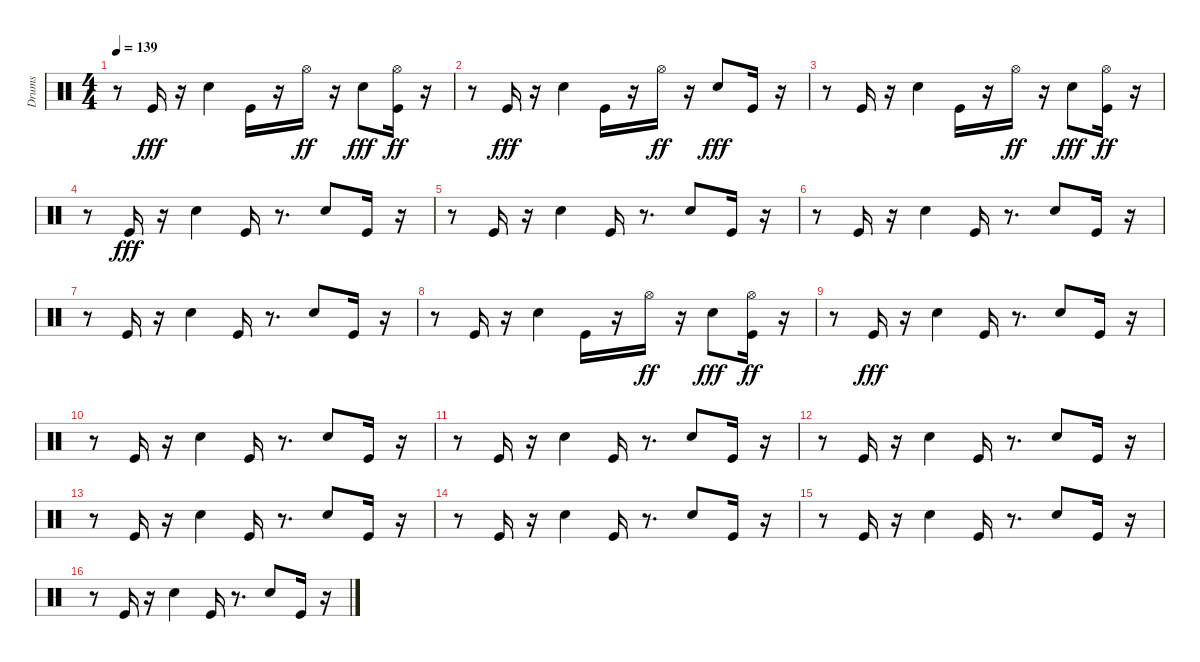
\track ("Drums" "Drums") {instrument percussion}
\staff {score}
\articulation defaults
\ts (4 4)
\tempo 139
\clef neutral
\ks c
r.8{dy fff} "Kick (hit)".16 r.16 "Snare (hit) 2".4 "Kick (hit)".16 r.16 "Hi-Hat (open)".16{dy ff} r.16 "Snare (hit) 2".8{dy fff} ("Kick (hit)" "Hi-Hat (open)").16{dy ff} r.16 |
r.8 "Kick (hit)".16{dy fff} r.16 "Snare (hit) 2".4 "Kick (hit)".16 r.16 "Hi-Hat (open)".16{dy ff} r.16 "Snare (hit) 2".8{dy fff} "Kick (hit)".16 r.16 |
r.8 "Kick (hit)".16 r.16 "Snare (hit) 2".4 "Kick (hit)".16 r.16 "Hi-Hat (open)".16{dy ff} r.16 "Snare (hit) 2".8{dy fff} ("Kick (hit)" "Hi-Hat (open)").16{dy ff} r.16 |
r.8 "Kick (hit)".16{dy fff} r.16 "Snare (hit) 2".4 "Kick (hit)".16 r.8{d} "Snare (hit) 2".8 "Kick (hit)".16 r.16 |
r.8 "Kick (hit)".16 r.16 "Snare (hit) 2".4 "Kick (hit)".16 r.8{d} "Snare (hit) 2".8 "Kick (hit)".16 r.16 |
r.8 "Kick (hit)".16 r.16 "Snare (hit) 2".4 "Kick (hit)".16 r.8{d} "Snare (hit) 2".8 "Kick (hit)".16 r.16 |
r.8 "Kick (hit)".16 r.16 "Snare (hit) 2".4 "Kick (hit)".16 r.8{d} "Snare (hit) 2".8 "Kick (hit)".16 r.16 |
r.8 "Kick (hit)".16 r.16 "Snare (hit) 2".4 "Kick (hit)".16 r.16 "Hi-Hat (open)".16{dy ff} r.16 "Snare (hit) 2".8{dy fff} ("Kick (hit)" "Hi-Hat (open)").16{dy ff} r.16 |
r.8 "Kick (hit)".16{dy fff} r.16 "Snare (hit) 2".4 "Kick (hit)".16 r.8{d} "Snare (hit) 2".8 "Kick (hit)".16 r.16 |
r.8 "Kick (hit)".16 r.16 "Snare (hit) 2".4 "Kick (hit)".16 r.8{d} "Snare (hit) 2".8 "Kick (hit)".16 r.16 |
r.8 "Kick (hit)".16 r.16 "Snare (hit) 2".4 "Kick (hit)".16 r.8{d} "Snare (hit) 2".8 "Kick (hit)".16 r.16 |
r.8 "Kick (hit)".16 r.16 "Snare (hit) 2".4 "Kick (hit)".16 r.8{d} "Snare (hit) 2".8 "Kick (hit)".16 r.16 |
r.8 "Kick (hit)".16 r.16 "Snare (hit) 2".4 "Kick (hit)".16 r.8{d} "Snare (hit) 2".8 "Kick (hit)".16 r.16 |
r.8 "Kick (hit)".16 r.16 "Snare (hit) 2".4 "Kick (hit)".16 r.8{d} "Snare (hit) 2".8 "Kick (hit)".16 r.16 |
r.8 "Kick (hit)".16 r.16 "Snare (hit) 2".4 "Kick (hit)".16 r.8{d} "Snare (hit) 2".8 "Kick (hit)".16 r.16 |
r.8 "Kick (hit)".16 r.16 "Snare (hit) 2".4 "Kick (hit)".16 r.8{d} "Snare (hit) 2".8 "Kick (hit)".16 r.16
